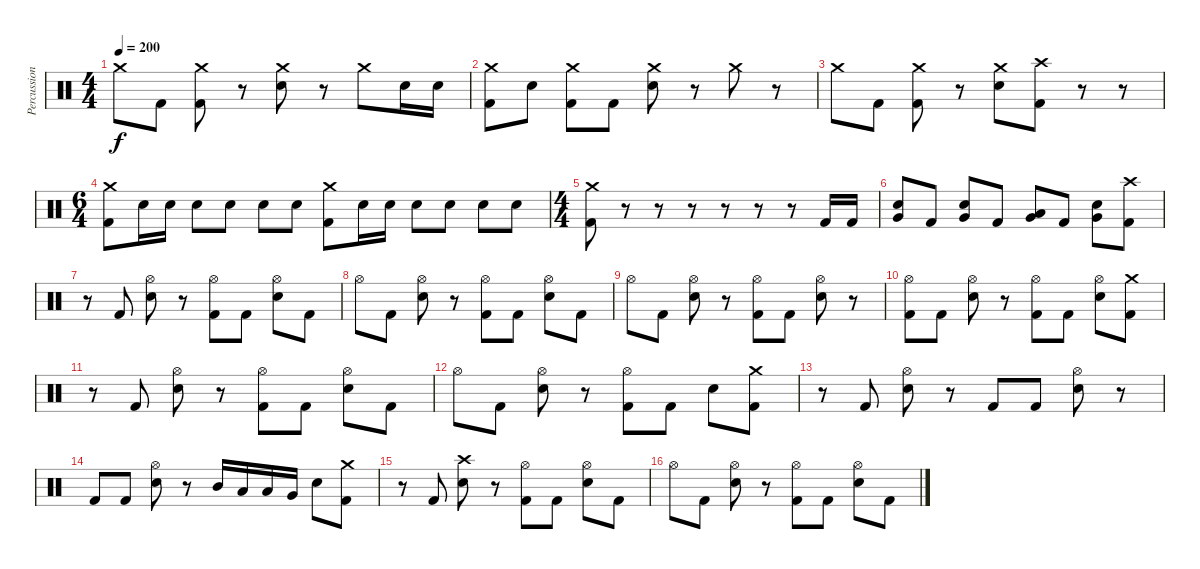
\track ("Percussion" "Percussion") {instrument percussion}
\staff {score}
\articulation defaults
\ts (4 4)
\tempo 200
\clef neutral
\ks c "Crash medium (hit)".8{dy f} "Kick (hit) 2".8
("Crash medium (hit)" "Kick (hit) 2").8 r.8 ("Crash medium (hit)" "Snare (hit) 2").8 r.8 "Crash medium (hit)".8 "Snare (hit) 2".16 "Snare (hit) 2".16 |
("Crash medium (hit)" "Kick (hit) 2").8 "Snare (hit) 2".8 ("Crash medium (hit)" "Kick (hit) 2").8 "Kick (hit) 2".8 ("Crash medium (hit)" "Snare (hit) 2").8 r.8 "Crash medium (hit)".8 r.8 |
"Crash medium (hit)".8 "Kick (hit) 2".8 ("Crash medium (hit)" "Kick (hit) 2").8 r.8 ("Crash medium (hit)" "Snare (hit) 2").8 ("Crash high (hit)" "Kick (hit) 2").8 r.8 r.8 |
\ts (6 4)
("Crash medium (hit)" "Kick (hit) 2").8 "Snare (hit) 2".16 "Snare (hit) 2".16 "Snare (hit) 2".8 "Snare (hit) 2".8 "Snare (hit) 2".8 "Snare (hit) 2".8 ("Crash medium (hit)" "Kick (hit) 2").8 "Snare (hit) 2".16 "Snare (hit) 2".16 "Snare (hit) 2".8 "Snare (hit) 2".8 "Snare (hit) 2".8 "Snare (hit) 2".8 |
\ts (4 4)
("Crash medium (hit)" "Kick (hit) 2").8 r.8 r.8 r.8 r.8 r.8 r.8 "Kick (hit) 2".16 "Kick (hit) 2".16 |
("Very Low Tom (hit)" "Snare (hit) 2").8 "Kick (hit) 2".8 ("Very Low Tom (hit)" "Snare (hit) 2").8 "Kick (hit) 2".8 ("Very Low Tom (hit)" "Low Floor Tom (hit)").8 "Kick (hit) 2".8 ("Very Low Tom (hit)" "Snare (hit) 2").8 ("Crash high (hit)" "Kick (hit) 2").8 |
r.8 "Kick (hit) 2".8 ("Hi-Hat (open)" "Snare (hit) 2").8 r.8 ("Hi-Hat (open)" "Kick (hit) 2").8 "Kick (hit) 2".8 ("Hi-Hat (open)" "Snare (hit) 2").8 "Kick (hit) 2".8 |
"Hi-Hat (open)".8 "Kick (hit) 2".8 ("Hi-Hat (open)" "Snare (hit) 2").8 r.8 ("Hi-Hat (open)" "Kick (hit) 2").8 "Kick (hit) 2".8 ("Hi-Hat (open)" "Snare (hit) 2").8 "Kick (hit) 2".8 |
"Hi-Hat (open)".8 "Kick (hit) 2".8 ("Hi-Hat (open)" "Snare (hit) 2").8 r.8 ("Hi-Hat (open)" "Kick (hit) 2").8 "Kick (hit) 2".8 ("Hi-Hat (open)" "Snare (hit) 2").8 r.8 |
("Hi-Hat (open)" "Kick (hit) 2").8 "Kick (hit) 2".8 ("Hi-Hat (open)" "Snare (hit) 2").8 r.8 ("Hi-Hat (open)" "Kick (hit) 2").8 "Kick (hit) 2".8 ("Hi-Hat (open)" "Snare (hit) 2").8 ("Crash medium (hit)" "Kick (hit) 2").8 |
r.8 "Kick (hit) 2".8 ("Hi-Hat (open)" "Snare (hit) 2").8 r.8 ("Hi-Hat (open)" "Kick (hit) 2").8 "Kick (hit) 2".8 ("Hi-Hat (open)" "Snare (hit) 2").8 "Kick (hit) 2".8 |
"Hi-Hat (open)".8 "Kick (hit) 2".8 ("Hi-Hat (open)" "Snare (hit) 2").8 r.8 ("Hi-Hat (open)" "Kick (hit) 2").8 "Kick (hit) 2".8 "Snare (hit) 2".8 ("Crash medium (hit)" "Kick (hit) 2").8 |
r.8 "Kick (hit) 2".8 ("Hi-Hat (open)" "Snare (hit) 2").8 r.8 "Kick (hit) 2".8 "Kick (hit) 2".8 ("Hi-Hat (open)" "Snare (hit) 2").8 r.8 |
"Kick (hit) 2".8 "Kick (hit) 2".8 ("Hi-Hat (open)" "Snare (hit) 2").8 r.8 "Mid Tom (hit)".16 "Low Tom (hit)".16 "Low Tom (hit)".16 "Very Low Tom (hit)".16 "Snare (hit) 2".8 ("Crash medium (hit)" "Kick (hit) 2").8 |
r.8 "Kick (hit) 2".8 ("Crash high (hit)" "Snare (hit) 2").8 r.8 ("Hi-Hat (open)" "Kick (hit) 2").8 "Kick (hit) 2".8 ("Hi-Hat (open)" "Snare (hit) 2").8 "Kick (hit) 2".8 |
"Hi-Hat (open)".8 "Kick (hit) 2".8 ("Hi-Hat (open)" "Snare (hit) 2").8 r.8 ("Hi-Hat (open)" "Kick (hit) 2").8 "Kick (hit) 2".8 ("Hi-Hat (open)" "Snare (hit) 2").8 "Kick (hit) 2".8
